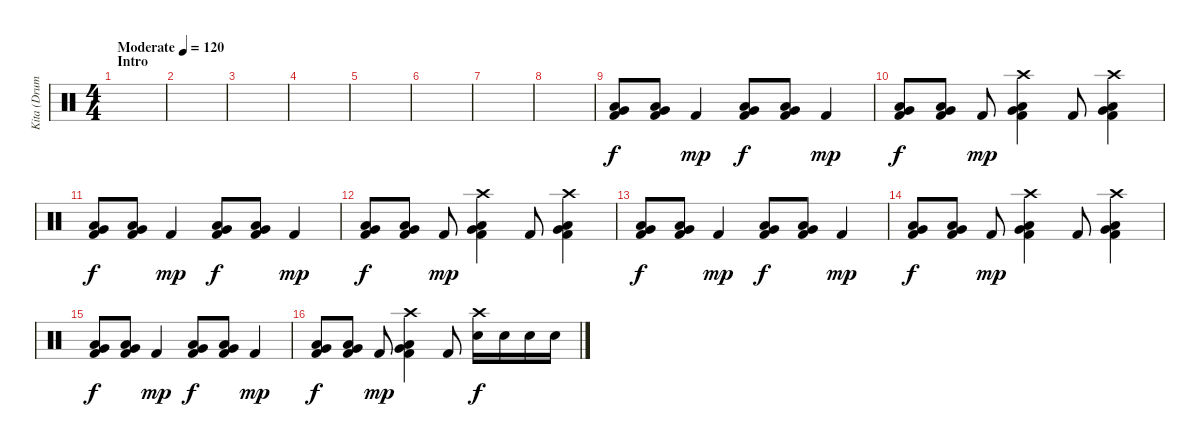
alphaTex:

\track ("Kita (Drums)" "Kita (Drum") {instrument percussion}
\staff {score}
\articulation defaults
\ts (4 4)
\section ("" "Intro")
\tempo (120 "Moderate")
\clef neutral
\ks c
|
|
|
|
|
|
|
|
("Low Floor Tom (hit)" "Very Low Tom (hit)" "Kick (hit) 2").8 ("Low Floor Tom (hit)" "Very Low Tom (hit)" "Kick (hit) 2").8 "Kick (hit) 2".4{dy mp} ("Low Floor Tom (hit)" "Very Low Tom (hit)" "Kick (hit) 2").8{dy f} ("Low Floor Tom (hit)" "Very Low Tom (hit)" "Kick (hit) 2").8 "Kick (hit) 2".4{dy mp} |
("Low Floor Tom (hit)" "Very Low Tom (hit)" "Kick (hit) 2").8{dy f} ("Low Floor Tom (hit)" "Very Low Tom (hit)" "Kick (hit) 2").8 "Kick (hit) 2".8{dy mp} ("Crash high (hit)" "Kick (hit) 2" "Low Floor Tom (hit)" "Very Low Tom (hit)").4 "Kick (hit) 2".8 ("Crash high (hit)" "Kick (hit) 2" "Very Low Tom (hit)" "Low Floor Tom (hit)").4 |
("Low Floor Tom (hit)" "Very Low Tom (hit)" "Kick (hit) 2").8{dy f} ("Low Floor Tom (hit)" "Very Low Tom (hit)" "Kick (hit) 2").8 "Kick (hit) 2".4{dy mp} ("Low Floor Tom (hit)" "Very Low Tom (hit)" "Kick (hit) 2").8{dy f} ("Low Floor Tom (hit)" "Very Low Tom (hit)" "Kick (hit) 2").8 "Kick (hit) 2".4{dy mp} |
("Low Floor Tom (hit)" "Very Low Tom (hit)" "Kick (hit) 2").8{dy f} ("Low Floor Tom (hit)" "Very Low Tom (hit)" "Kick (hit) 2").8 "Kick (hit) 2".8{dy mp} ("Crash high (hit)" "Kick (hit) 2" "Low Floor Tom (hit)" "Very Low Tom (hit)").4 "Kick (hit) 2".8 ("Crash high (hit)" "Kick (hit) 2" "Very Low Tom (hit)" "Low Floor Tom (hit)").4 |
("Low Floor Tom (hit)" "Very Low Tom (hit)" "Kick (hit) 2").8{dy f} ("Low Floor Tom (hit)" "Very Low Tom (hit)" "Kick (hit) 2").8 "Kick (hit) 2".4{dy mp} ("Low Floor Tom (hit)" "Very Low Tom (hit)" "Kick (hit) 2").8{dy f} ("Low Floor Tom (hit)" "Very Low Tom (hit)" "Kick (hit) 2").8 "Kick (hit) 2".4{dy mp} |
("Low Floor Tom (hit)" "Very Low Tom (hit)" "Kick (hit) 2").8{dy f} ("Low Floor Tom (hit)" "Very Low Tom (hit)" "Kick (hit) 2").8 "Kick (hit) 2".8{dy mp} ("Crash high (hit)" "Kick (hit) 2" "Low Floor Tom (hit)" "Very Low Tom (hit)").4 "Kick (hit) 2".8 ("Crash high (hit)" "Kick (hit) 2" "Very Low Tom (hit)" "Low Floor Tom (hit)").4 |
("Low Floor Tom (hit)" "Very Low Tom (hit)" "Kick (hit) 2").8{dy f} ("Low Floor Tom (hit)" "Very Low Tom (hit)" "Kick (hit) 2").8 "Kick (hit) 2".4{dy mp} ("Low Floor Tom (hit)" "Very Low Tom (hit)" "Kick (hit) 2").8{dy f} ("Low Floor Tom (hit)" "Very Low Tom (hit)" "Kick (hit) 2").8 "Kick (hit) 2".4{dy mp} |
("Low Floor Tom (hit)" "Very Low Tom (hit)" "Kick (hit) 2").8{dy f} ("Low Floor Tom (hit)" "Very Low Tom (hit)" "Kick (hit) 2").8 "Kick (hit) 2".8{dy mp} ("Crash high (hit)" "Kick (hit) 2" "Low Floor Tom (hit)" "Very Low Tom (hit)").4 "Kick (hit) 2".8 ("Crash high (hit)" "Snare (hit) 2").16{dy f} "Snare (hit) 2".16 "Snare (hit) 2".16 "Snare (hit) 2".16
